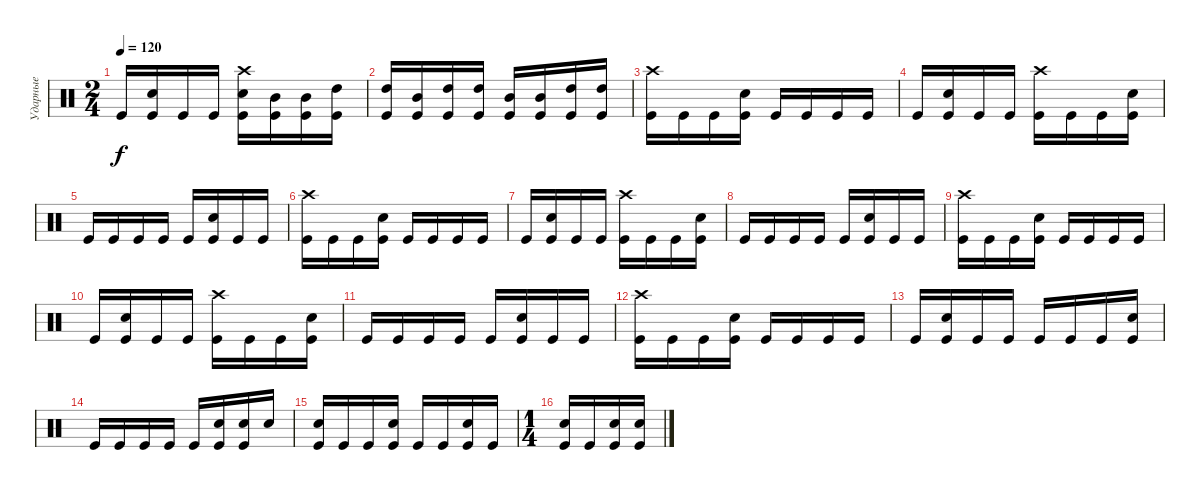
\track ("Ударные" "Ударные") {instrument percussion}
\staff {score}
\articulation defaults
\ts (2 4)
\tempo 120
\clef neutral
\ks c "Kick (hit)".16{dy f}
("Electric Snare (hit)" "Kick (hit)").16 "Kick (hit)".16 "Kick (hit)".16 ("Crash high (hit)" "Electric Snare (hit)" "Kick (hit)").16 ("Mid Tom (hit)" "Kick (hit)").16 ("Mid Tom (hit)" "Kick (hit)").16 ("High Tom (hit)" "Kick (hit)").16 |
("High Tom (hit)" "Kick (hit)").16 ("Mid Tom (hit)" "Kick (hit)").16 ("High Tom (hit)" "Kick (hit)").16 ("High Tom (hit)" "Kick (hit)").16 ("Mid Tom (hit)" "Kick (hit)").16 ("Mid Tom (hit)" "Kick (hit)").16 ("High Tom (hit)" "Kick (hit)").16 ("High Tom (hit)" "Kick (hit)").16 |
("Crash high (hit)" "Kick (hit)").16 "Kick (hit)".16 "Kick (hit)".16 ("Electric Snare (hit)" "Kick (hit)").16 "Kick (hit)".16 "Kick (hit)".16 "Kick (hit)".16 "Kick (hit)".16 |
"Kick (hit)".16 ("Electric Snare (hit)" "Kick (hit)").16 "Kick (hit)".16 "Kick (hit)".16 ("Crash high (hit)" "Kick (hit)").16 "Kick (hit)".16 "Kick (hit)".16 ("Electric Snare (hit)" "Kick (hit)").16 |
"Kick (hit)".16 "Kick (hit)".16 "Kick (hit)".16 "Kick (hit)".16 "Kick (hit)".16 ("Electric Snare (hit)" "Kick (hit)").16 "Kick (hit)".16 "Kick (hit)".16 |
("Crash high (hit)" "Kick (hit)").16 "Kick (hit)".16 "Kick (hit)".16 ("Electric Snare (hit)" "Kick (hit)").16 "Kick (hit)".16 "Kick (hit)".16 "Kick (hit)".16 "Kick (hit)".16 |
"Kick (hit)".16 ("Electric Snare (hit)" "Kick (hit)").16 "Kick (hit)".16 "Kick (hit)".16 ("Crash high (hit)" "Kick (hit)").16 "Kick (hit)".16 "Kick (hit)".16 ("Electric Snare (hit)" "Kick (hit)").16 |
"Kick (hit)".16 "Kick (hit)".16 "Kick (hit)".16 "Kick (hit)".16 "Kick (hit)".16 ("Electric Snare (hit)" "Kick (hit)").16 "Kick (hit)".16 "Kick (hit)".16 |
("Crash high (hit)" "Kick (hit)").16 "Kick (hit)".16 "Kick (hit)".16 ("Electric Snare (hit)" "Kick (hit)").16 "Kick (hit)".16 "Kick (hit)".16 "Kick (hit)".16 "Kick (hit)".16 |
"Kick (hit)".16 ("Electric Snare (hit)" "Kick (hit)").16 "Kick (hit)".16 "Kick (hit)".16 ("Crash high (hit)" "Kick (hit)").16 "Kick (hit)".16 "Kick (hit)".16 ("Electric Snare (hit)" "Kick (hit)").16 |
"Kick (hit)".16 "Kick (hit)".16 "Kick (hit)".16 "Kick (hit)".16 "Kick (hit)".16 ("Electric Snare (hit)" "Kick (hit)").16 "Kick (hit)".16 "Kick (hit)".16 |
("Crash high (hit)" "Kick (hit)").16 "Kick (hit)".16 "Kick (hit)".16 ("Electric Snare (hit)" "Kick (hit)").16 "Kick (hit)".16 "Kick (hit)".16 "Kick (hit)".16 "Kick (hit)".16 |
"Kick (hit)".16 ("Electric Snare (hit)" "Kick (hit)").16 "Kick (hit)".16 "Kick (hit)".16 "Kick (hit)".16 "Kick (hit)".16 "Kick (hit)".16 ("Electric Snare (hit)" "Kick (hit)").16 |
"Kick (hit)".16 "Kick (hit)".16 "Kick (hit)".16 "Kick (hit)".16 "Kick (hit)".16 ("Electric Snare (hit)" "Kick (hit)").16 ("Electric Snare (hit)" "Kick (hit)").16 "Electric Snare (hit)".16 |
("Electric Snare (hit)" "Kick (hit)").16 "Kick (hit)".16 "Kick (hit)".16 ("Electric Snare (hit)" "Kick (hit)").16 "Kick (hit)".16 "Kick (hit)".16 ("Electric Snare (hit)" "Kick (hit)").16 "Kick (hit)".16 |
\ts (1 4)
("Electric Snare (hit)" "Kick (hit)").16 "Kick (hit)".16 ("Electric Snare (hit)" "Kick (hit)").16 ("Electric Snare (hit)" "Kick (hit)").16
